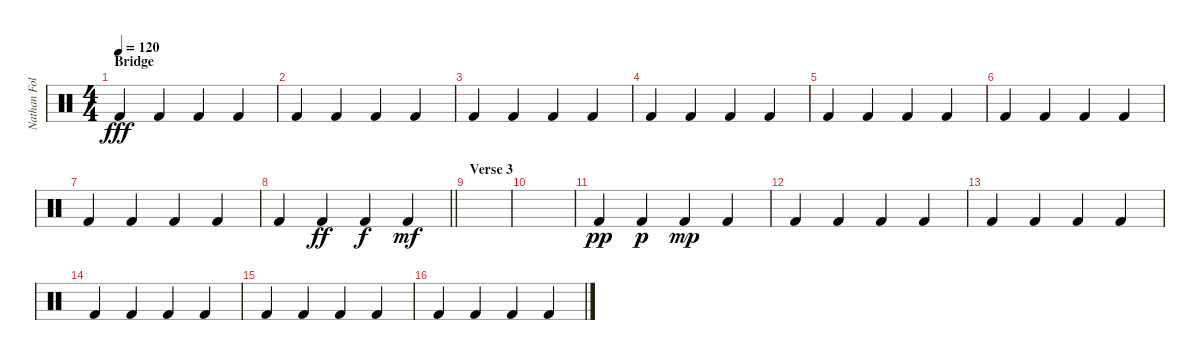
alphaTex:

\track ("Nathan Followill - Drums" "Nathan Fol") {instrument percussion}
\staff {score}
\articulation defaults
\ts (4 4)
\section ("" "Bridge")
\tempo 120
\clef neutral
\ks c "Kick (hit) 2".4{dy fff} "Kick (hit) 2".4 "Kick (hit) 2".4 "Kick (hit) 2".4
|
"Kick (hit) 2".4 "Kick (hit) 2".4 "Kick (hit) 2".4 "Kick (hit) 2".4 |
"Kick (hit) 2".4 "Kick (hit) 2".4 "Kick (hit) 2".4 "Kick (hit) 2".4 |
"Kick (hit) 2".4 "Kick (hit) 2".4 "Kick (hit) 2".4 "Kick (hit) 2".4 |
"Kick (hit) 2".4 "Kick (hit) 2".4 "Kick (hit) 2".4 "Kick (hit) 2".4 |
"Kick (hit) 2".4 "Kick (hit) 2".4 "Kick (hit) 2".4 "Kick (hit) 2".4 |
"Kick (hit) 2".4 "Kick (hit) 2".4 "Kick (hit) 2".4 "Kick (hit) 2".4 |
\barLineRight lightlight "Kick (hit) 2".4 "Kick (hit) 2".4{dy ff} "Kick (hit) 2".4{dy f} "Kick (hit) 2".4{dy mf}
|
\section ("" "Verse 3")
|
|
"Kick (hit) 2".4{dy pp} "Kick (hit) 2".4{dy p} "Kick (hit) 2".4{dy mp} "Kick (hit) 2".4 |
"Kick (hit) 2".4 "Kick (hit) 2".4 "Kick (hit) 2".4 "Kick (hit) 2".4 |
"Kick (hit) 2".4 "Kick (hit) 2".4 "Kick (hit) 2".4 "Kick (hit) 2".4 |
"Kick (hit) 2".4 "Kick (hit) 2".4 "Kick (hit) 2".4 "Kick (hit) 2".4 |
"Kick (hit) 2".4 "Kick (hit) 2".4 "Kick (hit) 2".4 "Kick (hit) 2".4 |
"Kick (hit) 2".4 "Kick (hit) 2".4 "Kick (hit) 2".4 "Kick (hit) 2".4
